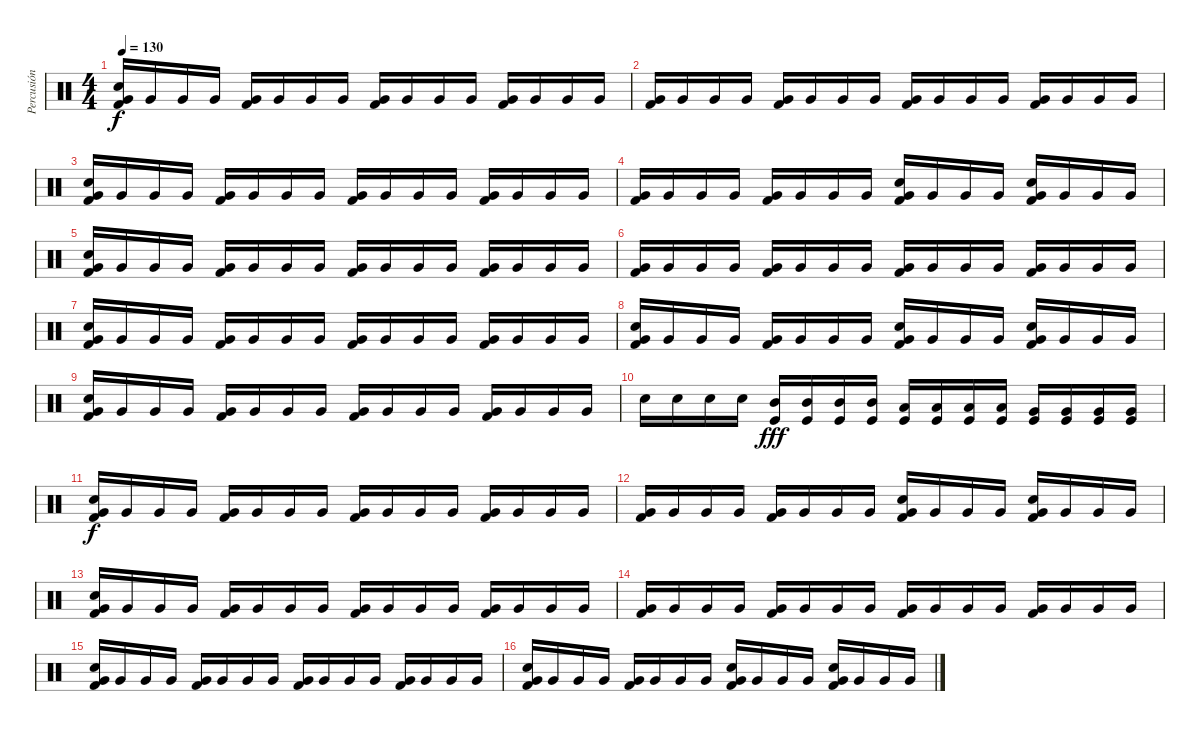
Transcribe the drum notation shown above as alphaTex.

\track ("Percusión" "Percusión") {instrument percussion}
\staff {score}
\articulation defaults
\ts (4 4)
\tempo 130
\clef neutral
\ks c
("Electric Snare (hit)" "Very Low Tom (hit)" "Kick (hit) 2").16{dy f} "Very Low Tom (hit)".16 "Very Low Tom (hit)".16 "Very Low Tom (hit)".16 ("Very Low Tom (hit)" "Kick (hit) 2").16 "Very Low Tom (hit)".16 "Very Low Tom (hit)".16 "Very Low Tom (hit)".16 ("Very Low Tom (hit)" "Kick (hit) 2").16 "Very Low Tom (hit)".16 "Very Low Tom (hit)".16 "Very Low Tom (hit)".16 ("Very Low Tom (hit)" "Kick (hit) 2").16 "Very Low Tom (hit)".16 "Very Low Tom (hit)".16 "Very Low Tom (hit)".16 |
("Very Low Tom (hit)" "Kick (hit) 2").16 "Very Low Tom (hit)".16 "Very Low Tom (hit)".16 "Very Low Tom (hit)".16 ("Very Low Tom (hit)" "Kick (hit) 2").16 "Very Low Tom (hit)".16 "Very Low Tom (hit)".16 "Very Low Tom (hit)".16 ("Very Low Tom (hit)" "Kick (hit) 2").16 "Very Low Tom (hit)".16 "Very Low Tom (hit)".16 "Very Low Tom (hit)".16 ("Very Low Tom (hit)" "Kick (hit) 2").16 "Very Low Tom (hit)".16 "Very Low Tom (hit)".16 "Very Low Tom (hit)".16 |
("Electric Snare (hit)" "Very Low Tom (hit)" "Kick (hit) 2").16 "Very Low Tom (hit)".16 "Very Low Tom (hit)".16 "Very Low Tom (hit)".16 ("Very Low Tom (hit)" "Kick (hit) 2").16 "Very Low Tom (hit)".16 "Very Low Tom (hit)".16 "Very Low Tom (hit)".16 ("Very Low Tom (hit)" "Kick (hit) 2").16 "Very Low Tom (hit)".16 "Very Low Tom (hit)".16 "Very Low Tom (hit)".16 ("Very Low Tom (hit)" "Kick (hit) 2").16 "Very Low Tom (hit)".16 "Very Low Tom (hit)".16 "Very Low Tom (hit)".16 |
("Very Low Tom (hit)" "Kick (hit) 2").16 "Very Low Tom (hit)".16 "Very Low Tom (hit)".16 "Very Low Tom (hit)".16 ("Very Low Tom (hit)" "Kick (hit) 2").16 "Very Low Tom (hit)".16 "Very Low Tom (hit)".16 "Very Low Tom (hit)".16 ("Electric Snare (hit)" "Very Low Tom (hit)" "Kick (hit) 2").16 "Very Low Tom (hit)".16 "Very Low Tom (hit)".16 "Very Low Tom (hit)".16 ("Electric Snare (hit)" "Very Low Tom (hit)" "Kick (hit) 2").16 "Very Low Tom (hit)".16 "Very Low Tom (hit)".16 "Very Low Tom (hit)".16 |
("Electric Snare (hit)" "Very Low Tom (hit)" "Kick (hit) 2").16 "Very Low Tom (hit)".16 "Very Low Tom (hit)".16 "Very Low Tom (hit)".16 ("Very Low Tom (hit)" "Kick (hit) 2").16 "Very Low Tom (hit)".16 "Very Low Tom (hit)".16 "Very Low Tom (hit)".16 ("Very Low Tom (hit)" "Kick (hit) 2").16 "Very Low Tom (hit)".16 "Very Low Tom (hit)".16 "Very Low Tom (hit)".16 ("Very Low Tom (hit)" "Kick (hit) 2").16 "Very Low Tom (hit)".16 "Very Low Tom (hit)".16 "Very Low Tom (hit)".16 |
("Very Low Tom (hit)" "Kick (hit) 2").16 "Very Low Tom (hit)".16 "Very Low Tom (hit)".16 "Very Low Tom (hit)".16 ("Very Low Tom (hit)" "Kick (hit) 2").16 "Very Low Tom (hit)".16 "Very Low Tom (hit)".16 "Very Low Tom (hit)".16 ("Very Low Tom (hit)" "Kick (hit) 2").16 "Very Low Tom (hit)".16 "Very Low Tom (hit)".16 "Very Low Tom (hit)".16 ("Very Low Tom (hit)" "Kick (hit) 2").16 "Very Low Tom (hit)".16 "Very Low Tom (hit)".16 "Very Low Tom (hit)".16 |
("Electric Snare (hit)" "Very Low Tom (hit)" "Kick (hit) 2").16 "Very Low Tom (hit)".16 "Very Low Tom (hit)".16 "Very Low Tom (hit)".16 ("Very Low Tom (hit)" "Kick (hit) 2").16 "Very Low Tom (hit)".16 "Very Low Tom (hit)".16 "Very Low Tom (hit)".16 ("Very Low Tom (hit)" "Kick (hit) 2").16 "Very Low Tom (hit)".16 "Very Low Tom (hit)".16 "Very Low Tom (hit)".16 ("Very Low Tom (hit)" "Kick (hit) 2").16 "Very Low Tom (hit)".16 "Very Low Tom (hit)".16 "Very Low Tom (hit)".16 |
("Electric Snare (hit)" "Very Low Tom (hit)" "Kick (hit) 2").16 "Very Low Tom (hit)".16 "Very Low Tom (hit)".16 "Very Low Tom (hit)".16 ("Very Low Tom (hit)" "Kick (hit) 2").16 "Very Low Tom (hit)".16 "Very Low Tom (hit)".16 "Very Low Tom (hit)".16 ("Electric Snare (hit)" "Very Low Tom (hit)" "Kick (hit) 2").16 "Very Low Tom (hit)".16 "Very Low Tom (hit)".16 "Very Low Tom (hit)".16 ("Electric Snare (hit)" "Very Low Tom (hit)" "Kick (hit) 2").16 "Very Low Tom (hit)".16 "Very Low Tom (hit)".16 "Very Low Tom (hit)".16 |
("Electric Snare (hit)" "Very Low Tom (hit)" "Kick (hit) 2").16 "Very Low Tom (hit)".16 "Very Low Tom (hit)".16 "Very Low Tom (hit)".16 ("Very Low Tom (hit)" "Kick (hit) 2").16 "Very Low Tom (hit)".16 "Very Low Tom (hit)".16 "Very Low Tom (hit)".16 ("Very Low Tom (hit)" "Kick (hit) 2").16 "Very Low Tom (hit)".16 "Very Low Tom (hit)".16 "Very Low Tom (hit)".16 ("Very Low Tom (hit)" "Kick (hit) 2").16 "Very Low Tom (hit)".16 "Very Low Tom (hit)".16 "Very Low Tom (hit)".16 |
"Electric Snare (hit)".16 "Electric Snare (hit)".16 "Electric Snare (hit)".16 "Electric Snare (hit)".16 ("Mid Tom (hit)" "Kick (hit)").16{dy fff} ("Mid Tom (hit)" "Kick (hit)").16 ("Mid Tom (hit)" "Kick (hit)").16 ("Mid Tom (hit)" "Kick (hit)").16 ("Low Tom (hit)" "Kick (hit)").16 ("Low Tom (hit)" "Kick (hit)").16 ("Low Tom (hit)" "Kick (hit)").16 ("Low Tom (hit)" "Kick (hit)").16 ("Very Low Tom (hit)" "Kick (hit)").16 ("Very Low Tom (hit)" "Kick (hit)").16 ("Very Low Tom (hit)" "Kick (hit)").16 ("Very Low Tom (hit)" "Kick (hit)").16 |
("Electric Snare (hit)" "Very Low Tom (hit)" "Kick (hit) 2").16{dy f} "Very Low Tom (hit)".16 "Very Low Tom (hit)".16 "Very Low Tom (hit)".16 ("Very Low Tom (hit)" "Kick (hit) 2").16 "Very Low Tom (hit)".16 "Very Low Tom (hit)".16 "Very Low Tom (hit)".16 ("Very Low Tom (hit)" "Kick (hit) 2").16 "Very Low Tom (hit)".16 "Very Low Tom (hit)".16 "Very Low Tom (hit)".16 ("Very Low Tom (hit)" "Kick (hit) 2").16 "Very Low Tom (hit)".16 "Very Low Tom (hit)".16 "Very Low Tom (hit)".16 |
("Very Low Tom (hit)" "Kick (hit) 2").16 "Very Low Tom (hit)".16 "Very Low Tom (hit)".16 "Very Low Tom (hit)".16 ("Very Low Tom (hit)" "Kick (hit) 2").16 "Very Low Tom (hit)".16 "Very Low Tom (hit)".16 "Very Low Tom (hit)".16 ("Electric Snare (hit)" "Very Low Tom (hit)" "Kick (hit) 2").16 "Very Low Tom (hit)".16 "Very Low Tom (hit)".16 "Very Low Tom (hit)".16 ("Electric Snare (hit)" "Very Low Tom (hit)" "Kick (hit) 2").16 "Very Low Tom (hit)".16 "Very Low Tom (hit)".16 "Very Low Tom (hit)".16 |
("Electric Snare (hit)" "Very Low Tom (hit)" "Kick (hit) 2").16 "Very Low Tom (hit)".16 "Very Low Tom (hit)".16 "Very Low Tom (hit)".16 ("Very Low Tom (hit)" "Kick (hit) 2").16 "Very Low Tom (hit)".16 "Very Low Tom (hit)".16 "Very Low Tom (hit)".16 ("Very Low Tom (hit)" "Kick (hit) 2").16 "Very Low Tom (hit)".16 "Very Low Tom (hit)".16 "Very Low Tom (hit)".16 ("Very Low Tom (hit)" "Kick (hit) 2").16 "Very Low Tom (hit)".16 "Very Low Tom (hit)".16 "Very Low Tom (hit)".16 |
("Very Low Tom (hit)" "Kick (hit) 2").16 "Very Low Tom (hit)".16 "Very Low Tom (hit)".16 "Very Low Tom (hit)".16 ("Very Low Tom (hit)" "Kick (hit) 2").16 "Very Low Tom (hit)".16 "Very Low Tom (hit)".16 "Very Low Tom (hit)".16 ("Very Low Tom (hit)" "Kick (hit) 2").16 "Very Low Tom (hit)".16 "Very Low Tom (hit)".16 "Very Low Tom (hit)".16 ("Very Low Tom (hit)" "Kick (hit) 2").16 "Very Low Tom (hit)".16 "Very Low Tom (hit)".16 "Very Low Tom (hit)".16 |
("Electric Snare (hit)" "Very Low Tom (hit)" "Kick (hit) 2").16 "Very Low Tom (hit)".16 "Very Low Tom (hit)".16 "Very Low Tom (hit)".16 ("Very Low Tom (hit)" "Kick (hit) 2").16 "Very Low Tom (hit)".16 "Very Low Tom (hit)".16 "Very Low Tom (hit)".16 ("Very Low Tom (hit)" "Kick (hit) 2").16 "Very Low Tom (hit)".16 "Very Low Tom (hit)".16 "Very Low Tom (hit)".16 ("Very Low Tom (hit)" "Kick (hit) 2").16 "Very Low Tom (hit)".16 "Very Low Tom (hit)".16 "Very Low Tom (hit)".16 |
("Electric Snare (hit)" "Very Low Tom (hit)" "Kick (hit) 2").16 "Very Low Tom (hit)".16 "Very Low Tom (hit)".16 "Very Low Tom (hit)".16 ("Very Low Tom (hit)" "Kick (hit) 2").16 "Very Low Tom (hit)".16 "Very Low Tom (hit)".16 "Very Low Tom (hit)".16 ("Electric Snare (hit)" "Very Low Tom (hit)" "Kick (hit) 2").16 "Very Low Tom (hit)".16 "Very Low Tom (hit)".16 "Very Low Tom (hit)".16 ("Electric Snare (hit)" "Very Low Tom (hit)" "Kick (hit) 2").16 "Very Low Tom (hit)".16 "Very Low Tom (hit)".16 "Very Low Tom (hit)".16
